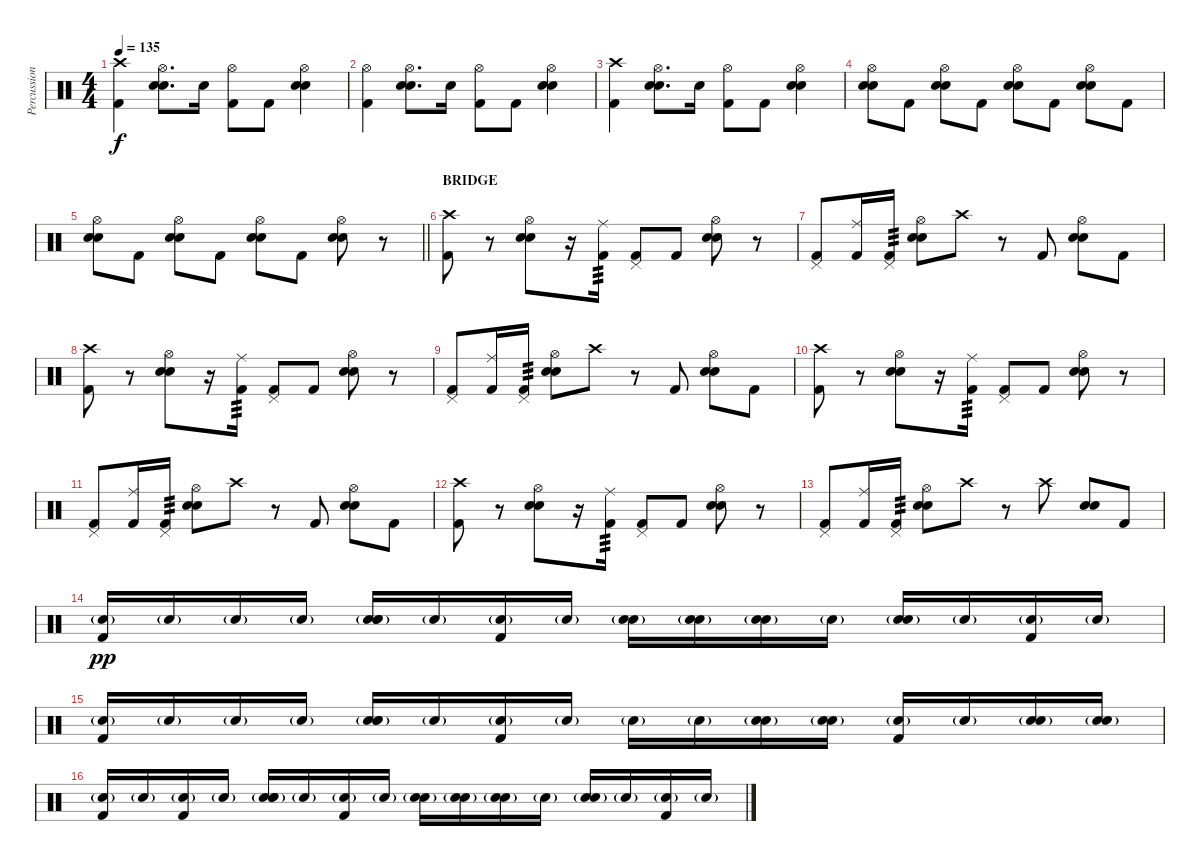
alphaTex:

\track ("Percussion" "Percussion") {instrument percussion}
\staff {score}
\articulation defaults
\ts (4 4)
\tempo 135
\clef neutral
\ks c
("Crash high (hit)" "Kick (hit) 2").4{dy f} ("Hi-Hat (open)" "Snare (hit) 2" "Electric Snare (hit)").8{d} "Electric Snare (hit)".16 ("Hi-Hat (open)" "Kick (hit) 2").8 "Kick (hit) 2".8 ("Hi-Hat (open)" "Snare (hit) 2" "Electric Snare (hit)").4 |
("Hi-Hat (open)" "Kick (hit) 2").4 ("Hi-Hat (open)" "Snare (hit) 2" "Electric Snare (hit)").8{d} "Electric Snare (hit)".16 ("Hi-Hat (open)" "Kick (hit) 2").8 "Kick (hit) 2".8 ("Hi-Hat (open)" "Snare (hit) 2" "Electric Snare (hit)").4 |
("Crash high (hit)" "Kick (hit) 2").4 ("Hi-Hat (open)" "Snare (hit) 2" "Electric Snare (hit)").8{d} "Electric Snare (hit)".16 ("Hi-Hat (open)" "Kick (hit) 2").8 "Kick (hit) 2".8 ("Hi-Hat (open)" "Snare (hit) 2" "Electric Snare (hit)").4 |
("Hi-Hat (open)" "Snare (hit) 2" "Electric Snare (hit)").8 "Kick (hit) 2".8 ("Hi-Hat (open)" "Snare (hit) 2" "Electric Snare (hit)").8 "Kick (hit) 2".8 ("Hi-Hat (open)" "Snare (hit) 2" "Electric Snare (hit)").8 "Kick (hit) 2".8 ("Hi-Hat (open)" "Snare (hit) 2" "Electric Snare (hit)").8 "Kick (hit) 2".8 |
\barLineRight lightlight
("Hi-Hat (open)" "Snare (hit) 2" "Electric Snare (hit)").8 "Kick (hit) 2".8 ("Hi-Hat (open)" "Snare (hit) 2" "Electric Snare (hit)").8 "Kick (hit) 2".8 ("Hi-Hat (open)" "Snare (hit) 2" "Electric Snare (hit)").8 "Kick (hit) 2".8 ("Hi-Hat (open)" "Snare (hit) 2" "Electric Snare (hit)").8 r.8 |
\section ("" "BRIDGE")
("Crash high (hit)" "Kick (hit) 2").8 r.8 ("Hi-Hat (open)" "Snare (hit) 2" "Electric Snare (hit)").8 r.16 ("Ride (middle)" "Kick (hit) 2").16{tp 3} ("Pedal Hi-Hat (hit)" "Kick (hit) 2").8 "Kick (hit) 2".8 ("Hi-Hat (open)" "Snare (hit) 2" "Electric Snare (hit)").8 r.8 |
("Pedal Hi-Hat (hit)" "Kick (hit) 2").8 ("Ride (middle)" "Kick (hit) 2").16 ("Pedal Hi-Hat (hit)" "Kick (hit) 2").16{tp 3} ("Hi-Hat (open)" "Snare (hit) 2" "Electric Snare (hit)").8 "Crash high (hit)".8 r.8 "Kick (hit) 2".8 ("Hi-Hat (open)" "Snare (hit) 2" "Electric Snare (hit)").8 "Kick (hit) 2".8 |
("Crash high (hit)" "Kick (hit) 2").8 r.8 ("Hi-Hat (open)" "Snare (hit) 2" "Electric Snare (hit)").8 r.16 ("Ride (middle)" "Kick (hit) 2").16{tp 3} ("Pedal Hi-Hat (hit)" "Kick (hit) 2").8 "Kick (hit) 2".8 ("Hi-Hat (open)" "Snare (hit) 2" "Electric Snare (hit)").8 r.8 |
("Pedal Hi-Hat (hit)" "Kick (hit) 2").8 ("Ride (middle)" "Kick (hit) 2").16 ("Pedal Hi-Hat (hit)" "Kick (hit) 2").16{tp 3} ("Hi-Hat (open)" "Snare (hit) 2" "Electric Snare (hit)").8 "Crash high (hit)".8 r.8 "Kick (hit) 2".8 ("Hi-Hat (open)" "Snare (hit) 2" "Electric Snare (hit)").8 "Kick (hit) 2".8 |
("Crash high (hit)" "Kick (hit) 2").8 r.8 ("Hi-Hat (open)" "Snare (hit) 2" "Electric Snare (hit)").8 r.16 ("Ride (middle)" "Kick (hit) 2").16{tp 3} ("Pedal Hi-Hat (hit)" "Kick (hit) 2").8 "Kick (hit) 2".8 ("Hi-Hat (open)" "Snare (hit) 2" "Electric Snare (hit)").8 r.8 |
("Pedal Hi-Hat (hit)" "Kick (hit) 2").8 ("Ride (middle)" "Kick (hit) 2").16 ("Pedal Hi-Hat (hit)" "Kick (hit) 2").16{tp 3} ("Hi-Hat (open)" "Snare (hit) 2" "Electric Snare (hit)").8 "Crash high (hit)".8 r.8 "Kick (hit) 2".8 ("Hi-Hat (open)" "Snare (hit) 2" "Electric Snare (hit)").8 "Kick (hit) 2".8 |
("Crash high (hit)" "Kick (hit) 2").8 r.8 ("Hi-Hat (open)" "Snare (hit) 2" "Electric Snare (hit)").8 r.16 ("Ride (middle)" "Kick (hit) 2").16{tp 3} ("Pedal Hi-Hat (hit)" "Kick (hit) 2").8 "Kick (hit) 2".8 ("Hi-Hat (open)" "Snare (hit) 2" "Electric Snare (hit)").8 r.8 |
("Pedal Hi-Hat (hit)" "Kick (hit) 2").8 ("Ride (middle)" "Kick (hit) 2").16 ("Pedal Hi-Hat (hit)" "Kick (hit) 2").16{tp 3} ("Hi-Hat (open)" "Snare (hit) 2" "Electric Snare (hit)").8 "Crash high (hit)".8 r.8 "Crash high (hit)".8 ("Snare (hit) 2" "Electric Snare (hit)").8 "Kick (hit) 2".8 |
("Snare (hit) 2"{g} "Kick (hit) 2").16{dy pp} "Snare (hit) 2"{g}.16 "Snare (hit) 2"{g}.16 "Snare (hit) 2"{g}.16 ("Snare (hit) 2" "Electric Snare (hit)" "Snare (hit) 2"{g}).16 "Snare (hit) 2"{g}.16 ("Snare (hit) 2"{g} "Kick (hit) 2").16 "Snare (hit) 2"{g}.16 ("Electric Snare (hit)" "Snare (hit) 2"{g}).16 ("Electric Snare (hit)" "Snare (hit) 2"{g}).16 ("Electric Snare (hit)" "Snare (hit) 2"{g}).16 "Snare (hit) 2"{g}.16 ("Electric Snare (hit)" "Snare (hit) 2"{g}).16 "Snare (hit) 2"{g}.16 ("Snare (hit) 2"{g} "Kick (hit) 2").16 "Snare (hit) 2"{g}.16 |
("Snare (hit) 2"{g} "Kick (hit) 2").16 "Snare (hit) 2"{g}.16 "Snare (hit) 2"{g}.16 "Snare (hit) 2"{g}.16 ("Snare (hit) 2" "Electric Snare (hit)" "Snare (hit) 2"{g}).16 "Snare (hit) 2"{g}.16 ("Snare (hit) 2"{g} "Kick (hit) 2").16 "Snare (hit) 2"{g}.16 "Snare (hit) 2"{g}.16 "Snare (hit) 2"{g}.16 ("Electric Snare (hit)" "Snare (hit) 2"{g}).16 ("Electric Snare (hit)" "Snare (hit) 2"{g}).16 ("Snare (hit) 2"{g} "Kick (hit) 2").16 "Snare (hit) 2"{g}.16 ("Electric Snare (hit)" "Snare (hit) 2"{g}).16 ("Electric Snare (hit)" "Snare (hit) 2"{g}).16 |
("Snare (hit) 2"{g} "Kick (hit) 2").16 "Snare (hit) 2"{g}.16 ("Snare (hit) 2"{g} "Kick (hit) 2").16 "Snare (hit) 2"{g}.16 ("Snare (hit) 2" "Electric Snare (hit)" "Snare (hit) 2"{g}).16 "Snare (hit) 2"{g}.16 ("Snare (hit) 2"{g} "Kick (hit) 2").16 "Snare (hit) 2"{g}.16 ("Electric Snare (hit)" "Snare (hit) 2"{g}).16 ("Electric Snare (hit)" "Snare (hit) 2"{g}).16 ("Electric Snare (hit)" "Snare (hit) 2"{g}).16 "Snare (hit) 2"{g}.16 ("Electric Snare (hit)" "Snare (hit) 2"{g}).16 "Snare (hit) 2"{g}.16 ("Snare (hit) 2"{g} "Kick (hit) 2").16 "Snare (hit) 2"{g}.16
